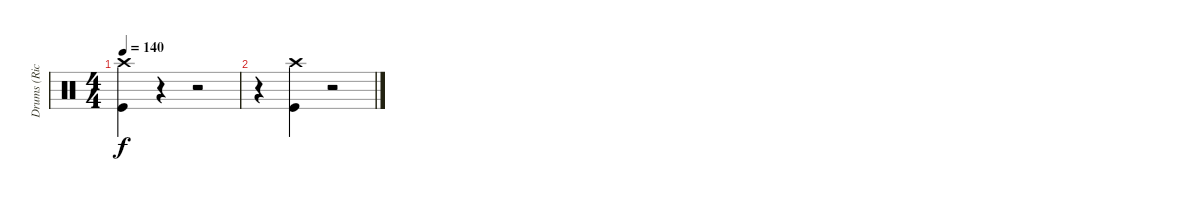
\track ("Drums (Rick)" "Drums (Ric") {instrument percussion}
\staff {score}
\articulation defaults
\ts (4 4)
\tempo 140
\clef neutral
\ks aminor
("Crash high (hit)" "Kick (hit)").4{dy f} r.4 r.2 |
r.4 ("Crash high (hit)" "Kick (hit)").4 r.2
